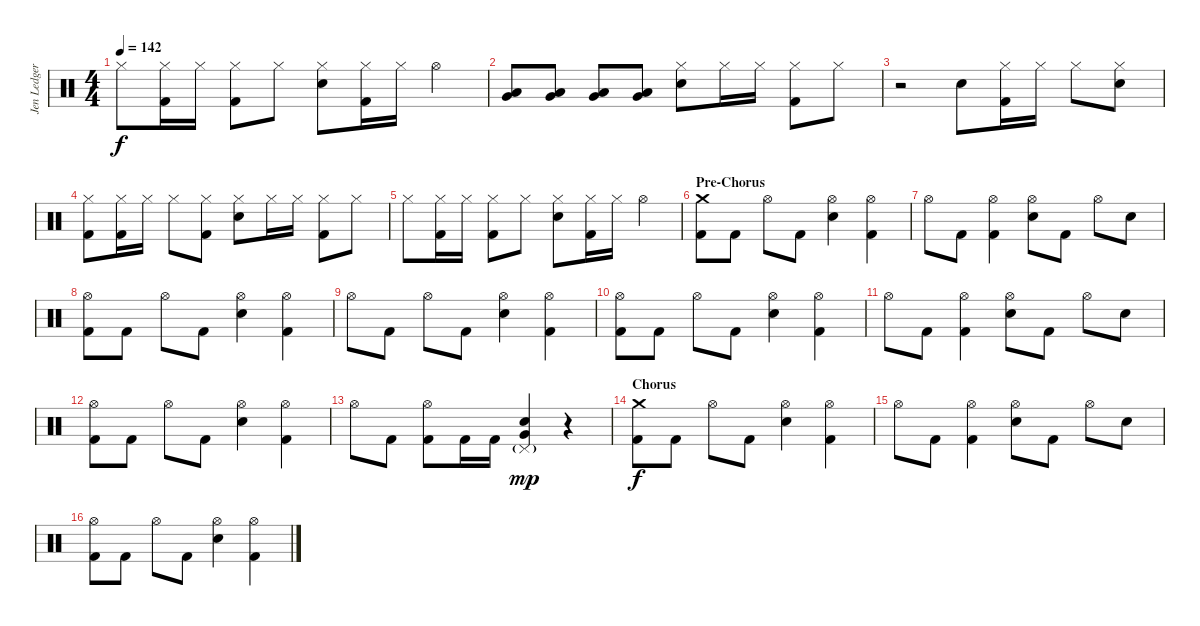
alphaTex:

\track ("Jen Ledger" "Jen Ledger") {instrument percussion}
\staff {score}
\articulation defaults
\ts (4 4)
\tempo 142
\clef neutral
\ks c "Hi-Hat (closed)".8{dy f}
("Hi-Hat (closed)" "Kick (hit) 2").16 "Hi-Hat (closed)".16 ("Hi-Hat (closed)" "Kick (hit) 2").8 "Hi-Hat (closed)".8 ("Hi-Hat (closed)" "Electric Snare (hit)").8 ("Hi-Hat (closed)" "Kick (hit) 2").16 "Hi-Hat (closed)".16 "Hi-Hat (open)".4 |
("Very Low Tom (hit)" "Low Floor Tom (hit)").8 ("Very Low Tom (hit)" "Low Floor Tom (hit)").8 ("Very Low Tom (hit)" "Low Floor Tom (hit)").8 ("Very Low Tom (hit)" "Low Floor Tom (hit)").8 ("Hi-Hat (closed)" "Electric Snare (hit)").8 "Hi-Hat (closed)".16 "Hi-Hat (closed)".16 ("Hi-Hat (closed)" "Kick (hit) 2").8 "Hi-Hat (closed)".8 |
r.2 "Electric Snare (hit)".8 ("Hi-Hat (closed)" "Kick (hit) 2").16 "Hi-Hat (closed)".16 "Hi-Hat (closed)".8 ("Hi-Hat (closed)" "Electric Snare (hit)").8 |
("Hi-Hat (closed)" "Kick (hit) 2").8 ("Hi-Hat (closed)" "Kick (hit) 2").16 "Hi-Hat (closed)".16 "Hi-Hat (closed)".8 ("Hi-Hat (closed)" "Kick (hit) 2").8 ("Hi-Hat (closed)" "Electric Snare (hit)").8 "Hi-Hat (closed)".16 "Hi-Hat (closed)".16 ("Hi-Hat (closed)" "Kick (hit) 2").8 "Hi-Hat (closed)".8 |
"Hi-Hat (closed)".8 ("Hi-Hat (closed)" "Kick (hit) 2").16 "Hi-Hat (closed)".16 ("Hi-Hat (closed)" "Kick (hit) 2").8 "Hi-Hat (closed)".8 ("Hi-Hat (closed)" "Electric Snare (hit)").8 ("Hi-Hat (closed)" "Kick (hit) 2").16 "Hi-Hat (closed)".16 "Hi-Hat (open)".4 |
\section ("" "Pre-Chorus")
("Crash medium (hit)" "Kick (hit) 2").8 "Kick (hit) 2".8 "Hi-Hat (open)".8 "Kick (hit) 2".8 ("Hi-Hat (open)" "Electric Snare (hit)").4 ("Hi-Hat (open)" "Kick (hit) 2").4 |
"Hi-Hat (open)".8 "Kick (hit) 2".8 ("Hi-Hat (open)" "Kick (hit) 2").4 ("Hi-Hat (open)" "Electric Snare (hit)").8 "Kick (hit) 2".8 "Hi-Hat (open)".8 "Electric Snare (hit)".8 |
("Hi-Hat (open)" "Kick (hit) 2").8 "Kick (hit) 2".8 "Hi-Hat (open)".8 "Kick (hit) 2".8 ("Hi-Hat (open)" "Electric Snare (hit)").4 ("Hi-Hat (open)" "Kick (hit) 2").4 |
"Hi-Hat (open)".8 "Kick (hit) 2".8 "Hi-Hat (open)".8 "Kick (hit) 2".8 ("Hi-Hat (open)" "Electric Snare (hit)").4 ("Hi-Hat (open)" "Kick (hit) 2").4 |
("Hi-Hat (open)" "Kick (hit) 2").8 "Kick (hit) 2".8 "Hi-Hat (open)".8 "Kick (hit) 2".8 ("Hi-Hat (open)" "Electric Snare (hit)").4 ("Hi-Hat (open)" "Kick (hit) 2").4 |
"Hi-Hat (open)".8 "Kick (hit) 2".8 ("Hi-Hat (open)" "Kick (hit) 2").4 ("Hi-Hat (open)" "Electric Snare (hit)").8 "Kick (hit) 2".8 "Hi-Hat (open)".8 "Electric Snare (hit)".8 |
("Hi-Hat (open)" "Kick (hit) 2").8 "Kick (hit) 2".8 "Hi-Hat (open)".8 "Kick (hit) 2".8 ("Hi-Hat (open)" "Electric Snare (hit)").4 ("Hi-Hat (open)" "Kick (hit) 2").4 |
"Hi-Hat (open)".8 "Kick (hit) 2".8 ("Hi-Hat (open)" "Kick (hit) 2").8 "Kick (hit) 2".16 "Kick (hit) 2".16 ("Electric Snare (hit)" "Very Low Tom (hit)" "Pedal Hi-Hat (hit)"{g}).4{dy mp} r.4 |
\section ("" "Chorus")
("Crash medium (hit)" "Kick (hit) 2").8{dy f} "Kick (hit) 2".8 "Hi-Hat (open)".8 "Kick (hit) 2".8 ("Hi-Hat (open)" "Electric Snare (hit)").4 ("Hi-Hat (open)" "Kick (hit) 2").4 |
"Hi-Hat (open)".8 "Kick (hit) 2".8 ("Hi-Hat (open)" "Kick (hit) 2").4 ("Hi-Hat (open)" "Electric Snare (hit)").8 "Kick (hit) 2".8 "Hi-Hat (open)".8 "Electric Snare (hit)".8 |
("Hi-Hat (open)" "Kick (hit) 2").8 "Kick (hit) 2".8 "Hi-Hat (open)".8 "Kick (hit) 2".8 ("Hi-Hat (open)" "Electric Snare (hit)").4 ("Hi-Hat (open)" "Kick (hit) 2").4
